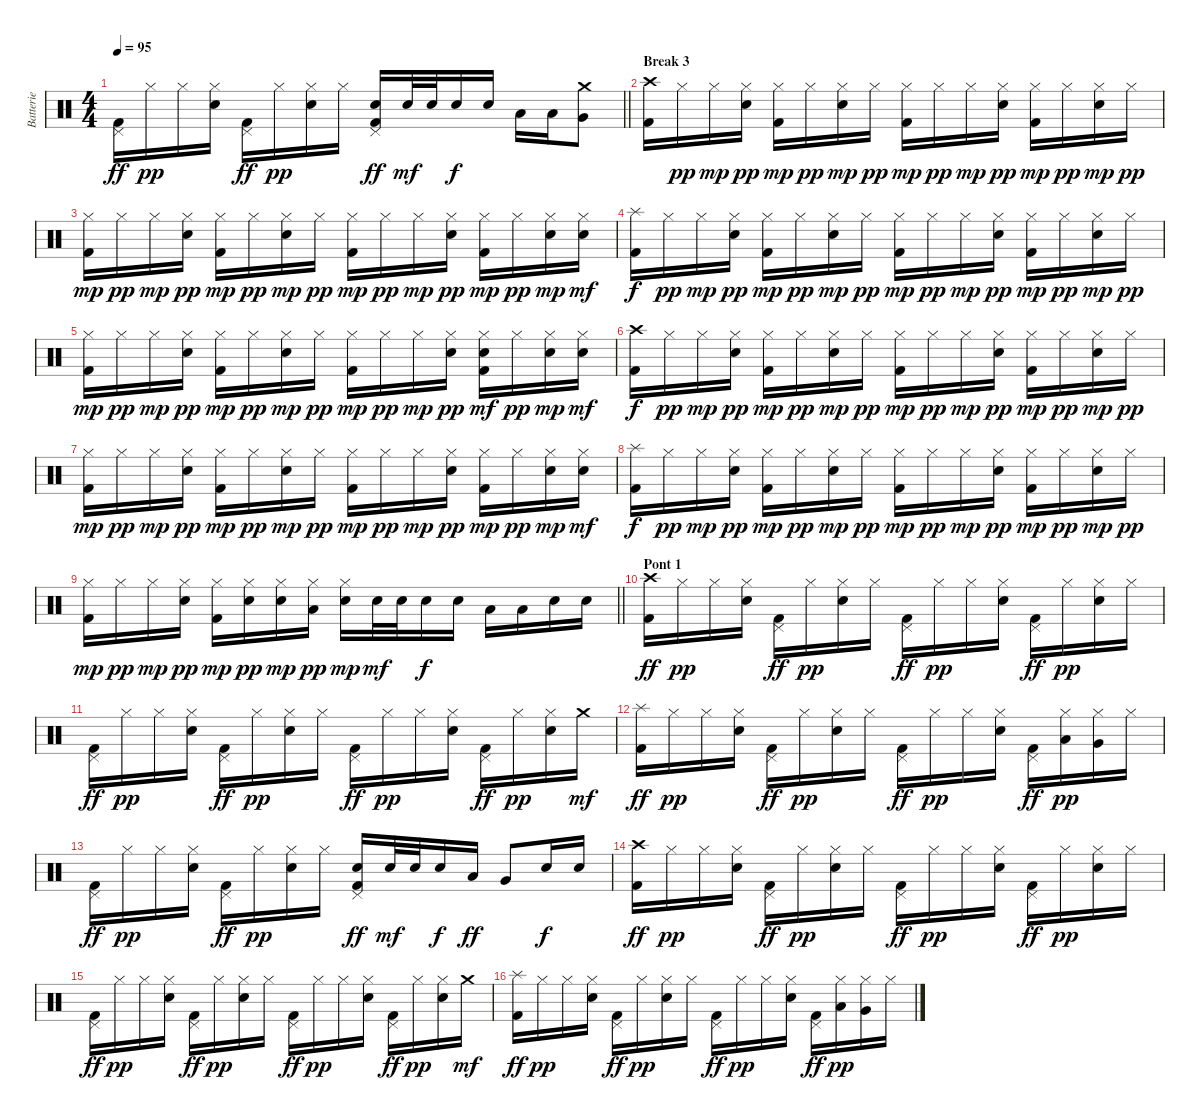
\track ("Batterie" "Batterie") {instrument percussion}
\staff {score}
\articulation defaults
\ts (4 4)
\tempo 95
\clef neutral
\barLineRight lightlight
\ks c
("Pedal Hi-Hat (hit)" "Kick (hit) 2").16{dy ff} "Hi-Hat (closed)".16{dy pp} "Hi-Hat (closed)".16 ("Hi-Hat (closed)" "Electric Snare (hit)").16 ("Pedal Hi-Hat (hit)" "Kick (hit) 2").16{dy ff} "Hi-Hat (closed)".16{dy pp} ("Hi-Hat (closed)" "Electric Snare (hit)").16 "Hi-Hat (closed)".16 ("Pedal Hi-Hat (hit)" "Electric Snare (hit)" "Kick (hit) 2").16{dy ff} "Electric Snare (hit)".32{dy mf} "Electric Snare (hit)".32 "Electric Snare (hit)".16{dy f} "Electric Snare (hit)".16 "Low Tom (hit)".16 "Low Tom (hit)".16 ("Crash medium (hit)" "Very Low Tom (hit)").8 |
\section ("" "Break 3")
("Crash high (hit)" "Kick (hit) 2").16 "Hi-Hat (closed)".16{dy pp} "Hi-Hat (closed)".16{dy mp} ("Hi-Hat (closed)" "Electric Snare (hit)").16{dy pp} ("Hi-Hat (closed)" "Kick (hit) 2").16{dy mp} "Hi-Hat (closed)".16{dy pp} ("Hi-Hat (closed)" "Electric Snare (hit)").16{dy mp} "Hi-Hat (closed)".16{dy pp} ("Hi-Hat (closed)" "Kick (hit) 2").16{dy mp} "Hi-Hat (closed)".16{dy pp} "Hi-Hat (closed)".16{dy mp} ("Hi-Hat (closed)" "Electric Snare (hit)").16{dy pp} ("Hi-Hat (closed)" "Kick (hit) 2").16{dy mp} "Hi-Hat (closed)".16{dy pp} ("Hi-Hat (closed)" "Electric Snare (hit)").16{dy mp} "Hi-Hat (closed)".16{dy pp} |
("Hi-Hat (closed)" "Kick (hit) 2").16{dy mp} "Hi-Hat (closed)".16{dy pp} "Hi-Hat (closed)".16{dy mp} ("Hi-Hat (closed)" "Electric Snare (hit)").16{dy pp} ("Hi-Hat (closed)" "Kick (hit) 2").16{dy mp} "Hi-Hat (closed)".16{dy pp} ("Hi-Hat (closed)" "Electric Snare (hit)").16{dy mp} "Hi-Hat (closed)".16{dy pp} ("Hi-Hat (closed)" "Kick (hit) 2").16{dy mp} "Hi-Hat (closed)".16{dy pp} "Hi-Hat (closed)".16{dy mp} ("Hi-Hat (closed)" "Electric Snare (hit)").16{dy pp} ("Hi-Hat (closed)" "Kick (hit) 2").16{dy mp} "Hi-Hat (closed)".16{dy pp} ("Hi-Hat (closed)" "Electric Snare (hit)").16{dy mp} ("Hi-Hat (closed)" "Electric Snare (hit)").16{dy mf} |
("Splash (hit)" "Kick (hit) 2").16{dy f} "Hi-Hat (closed)".16{dy pp} "Hi-Hat (closed)".16{dy mp} ("Hi-Hat (closed)" "Electric Snare (hit)").16{dy pp} ("Hi-Hat (closed)" "Kick (hit) 2").16{dy mp} "Hi-Hat (closed)".16{dy pp} ("Hi-Hat (closed)" "Electric Snare (hit)").16{dy mp} "Hi-Hat (closed)".16{dy pp} ("Hi-Hat (closed)" "Kick (hit) 2").16{dy mp} "Hi-Hat (closed)".16{dy pp} "Hi-Hat (closed)".16{dy mp} ("Hi-Hat (closed)" "Electric Snare (hit)").16{dy pp} ("Hi-Hat (closed)" "Kick (hit) 2").16{dy mp} "Hi-Hat (closed)".16{dy pp} ("Hi-Hat (closed)" "Electric Snare (hit)").16{dy mp} "Hi-Hat (closed)".16{dy pp} |
("Hi-Hat (closed)" "Kick (hit) 2").16{dy mp} "Hi-Hat (closed)".16{dy pp} "Hi-Hat (closed)".16{dy mp} ("Hi-Hat (closed)" "Electric Snare (hit)").16{dy pp} ("Hi-Hat (closed)" "Kick (hit) 2").16{dy mp} "Hi-Hat (closed)".16{dy pp} ("Hi-Hat (closed)" "Electric Snare (hit)").16{dy mp} "Hi-Hat (closed)".16{dy pp} ("Hi-Hat (closed)" "Kick (hit) 2").16{dy mp} "Hi-Hat (closed)".16{dy pp} "Hi-Hat (closed)".16{dy mp} ("Hi-Hat (closed)" "Electric Snare (hit)").16{dy pp} ("Hi-Hat (closed)" "Electric Snare (hit)" "Kick (hit) 2").16{dy mf} "Hi-Hat (closed)".16{dy pp} ("Hi-Hat (closed)" "Electric Snare (hit)").16{dy mp} ("Hi-Hat (closed)" "Electric Snare (hit)").16{dy mf} |
("Crash high (hit)" "Kick (hit) 2").16{dy f} "Hi-Hat (closed)".16{dy pp} "Hi-Hat (closed)".16{dy mp} ("Hi-Hat (closed)" "Electric Snare (hit)").16{dy pp} ("Hi-Hat (closed)" "Kick (hit) 2").16{dy mp} "Hi-Hat (closed)".16{dy pp} ("Hi-Hat (closed)" "Electric Snare (hit)").16{dy mp} "Hi-Hat (closed)".16{dy pp} ("Hi-Hat (closed)" "Kick (hit) 2").16{dy mp} "Hi-Hat (closed)".16{dy pp} "Hi-Hat (closed)".16{dy mp} ("Hi-Hat (closed)" "Electric Snare (hit)").16{dy pp} ("Hi-Hat (closed)" "Kick (hit) 2").16{dy mp} "Hi-Hat (closed)".16{dy pp} ("Hi-Hat (closed)" "Electric Snare (hit)").16{dy mp} "Hi-Hat (closed)".16{dy pp} |
("Hi-Hat (closed)" "Kick (hit) 2").16{dy mp} "Hi-Hat (closed)".16{dy pp} "Hi-Hat (closed)".16{dy mp} ("Hi-Hat (closed)" "Electric Snare (hit)").16{dy pp} ("Hi-Hat (closed)" "Kick (hit) 2").16{dy mp} "Hi-Hat (closed)".16{dy pp} ("Hi-Hat (closed)" "Electric Snare (hit)").16{dy mp} "Hi-Hat (closed)".16{dy pp} ("Hi-Hat (closed)" "Kick (hit) 2").16{dy mp} "Hi-Hat (closed)".16{dy pp} "Hi-Hat (closed)".16{dy mp} ("Hi-Hat (closed)" "Electric Snare (hit)").16{dy pp} ("Hi-Hat (closed)" "Kick (hit) 2").16{dy mp} "Hi-Hat (closed)".16{dy pp} ("Hi-Hat (closed)" "Electric Snare (hit)").16{dy mp} ("Hi-Hat (closed)" "Electric Snare (hit)").16{dy mf} |
("Splash (hit)" "Kick (hit) 2").16{dy f} "Hi-Hat (closed)".16{dy pp} "Hi-Hat (closed)".16{dy mp} ("Hi-Hat (closed)" "Electric Snare (hit)").16{dy pp} ("Hi-Hat (closed)" "Kick (hit) 2").16{dy mp} "Hi-Hat (closed)".16{dy pp} ("Hi-Hat (closed)" "Electric Snare (hit)").16{dy mp} "Hi-Hat (closed)".16{dy pp} ("Hi-Hat (closed)" "Kick (hit) 2").16{dy mp} "Hi-Hat (closed)".16{dy pp} "Hi-Hat (closed)".16{dy mp} ("Hi-Hat (closed)" "Electric Snare (hit)").16{dy pp} ("Hi-Hat (closed)" "Kick (hit) 2").16{dy mp} "Hi-Hat (closed)".16{dy pp} ("Hi-Hat (closed)" "Electric Snare (hit)").16{dy mp} "Hi-Hat (closed)".16{dy pp} |
\barLineRight lightlight
("Hi-Hat (closed)" "Kick (hit) 2").16{dy mp} "Hi-Hat (closed)".16{dy pp} "Hi-Hat (closed)".16{dy mp} ("Hi-Hat (closed)" "Electric Snare (hit)").16{dy pp} ("Hi-Hat (closed)" "Kick (hit) 2").16{dy mp} ("Hi-Hat (closed)" "Electric Snare (hit)").16{dy pp} ("Hi-Hat (closed)" "Electric Snare (hit)").16{dy mp} ("Hi-Hat (closed)" "Low Tom (hit)").16{dy pp} ("Hi-Hat (closed)" "Electric Snare (hit)").16{dy mp} "Electric Snare (hit)".32{dy mf} "Electric Snare (hit)".32 "Electric Snare (hit)".16{dy f} "Electric Snare (hit)".16 "Low Tom (hit)".16 "Low Tom (hit)".16 "Electric Snare (hit)".16 "Electric Snare (hit)".16 |
\section ("" "Pont 1")
("Crash high (hit)" "Kick (hit) 2").16{dy ff} "Hi-Hat (closed)".16{dy pp} "Hi-Hat (closed)".16 ("Hi-Hat (closed)" "Electric Snare (hit)").16 ("Pedal Hi-Hat (hit)" "Kick (hit) 2").16{dy ff} "Hi-Hat (closed)".16{dy pp} ("Hi-Hat (closed)" "Electric Snare (hit)").16 "Hi-Hat (closed)".16 ("Pedal Hi-Hat (hit)" "Kick (hit) 2").16{dy ff} "Hi-Hat (closed)".16{dy pp} "Hi-Hat (closed)".16 ("Hi-Hat (closed)" "Electric Snare (hit)").16 ("Pedal Hi-Hat (hit)" "Kick (hit) 2").16{dy ff} "Hi-Hat (closed)".16{dy pp} ("Hi-Hat (closed)" "Electric Snare (hit)").16 "Hi-Hat (closed)".16 |
("Pedal Hi-Hat (hit)" "Kick (hit) 2").16{dy ff} "Hi-Hat (closed)".16{dy pp} "Hi-Hat (closed)".16 ("Hi-Hat (closed)" "Electric Snare (hit)").16 ("Pedal Hi-Hat (hit)" "Kick (hit) 2").16{dy ff} "Hi-Hat (closed)".16{dy pp} ("Hi-Hat (closed)" "Electric Snare (hit)").16 "Hi-Hat (closed)".16 ("Pedal Hi-Hat (hit)" "Kick (hit) 2").16{dy ff} "Hi-Hat (closed)".16{dy pp} "Hi-Hat (closed)".16 ("Hi-Hat (closed)" "Electric Snare (hit)").16 ("Pedal Hi-Hat (hit)" "Kick (hit) 2").16{dy ff} "Hi-Hat (closed)".16{dy pp} ("Hi-Hat (closed)" "Electric Snare (hit)").16 "Crash medium (hit)".16{dy mf} |
("Splash (hit)" "Kick (hit) 2").16{dy ff} "Hi-Hat (closed)".16{dy pp} "Hi-Hat (closed)".16 ("Hi-Hat (closed)" "Electric Snare (hit)").16 ("Pedal Hi-Hat (hit)" "Kick (hit) 2").16{dy ff} "Hi-Hat (closed)".16{dy pp} ("Hi-Hat (closed)" "Electric Snare (hit)").16 "Hi-Hat (closed)".16 ("Pedal Hi-Hat (hit)" "Kick (hit) 2").16{dy ff} "Hi-Hat (closed)".16{dy pp} "Hi-Hat (closed)".16 ("Hi-Hat (closed)" "Electric Snare (hit)").16 ("Pedal Hi-Hat (hit)" "Kick (hit) 2").16{dy ff} ("Hi-Hat (closed)" "Low Tom (hit)").16{dy pp} ("Hi-Hat (closed)" "Very Low Tom (hit)").16 "Hi-Hat (closed)".16 |
("Pedal Hi-Hat (hit)" "Kick (hit) 2").16{dy ff} "Hi-Hat (closed)".16{dy pp} "Hi-Hat (closed)".16 ("Hi-Hat (closed)" "Electric Snare (hit)").16 ("Pedal Hi-Hat (hit)" "Kick (hit) 2").16{dy ff} "Hi-Hat (closed)".16{dy pp} ("Hi-Hat (closed)" "Electric Snare (hit)").16 "Hi-Hat (closed)".16 ("Pedal Hi-Hat (hit)" "Electric Snare (hit)" "Kick (hit) 2").16{dy ff} "Electric Snare (hit)".32{dy mf} "Electric Snare (hit)".32 "Electric Snare (hit)".16{dy f} "Low Tom (hit)".16{dy ff} "Very Low Tom (hit)".8 "Electric Snare (hit)".16{dy f} "Electric Snare (hit)".16 |
("Crash high (hit)" "Kick (hit) 2").16{dy ff} "Hi-Hat (closed)".16{dy pp} "Hi-Hat (closed)".16 ("Hi-Hat (closed)" "Electric Snare (hit)").16 ("Pedal Hi-Hat (hit)" "Kick (hit) 2").16{dy ff} "Hi-Hat (closed)".16{dy pp} ("Hi-Hat (closed)" "Electric Snare (hit)").16 "Hi-Hat (closed)".16 ("Pedal Hi-Hat (hit)" "Kick (hit) 2").16{dy ff} "Hi-Hat (closed)".16{dy pp} "Hi-Hat (closed)".16 ("Hi-Hat (closed)" "Electric Snare (hit)").16 ("Pedal Hi-Hat (hit)" "Kick (hit) 2").16{dy ff} "Hi-Hat (closed)".16{dy pp} ("Hi-Hat (closed)" "Electric Snare (hit)").16 "Hi-Hat (closed)".16 |
("Pedal Hi-Hat (hit)" "Kick (hit) 2").16{dy ff} "Hi-Hat (closed)".16{dy pp} "Hi-Hat (closed)".16 ("Hi-Hat (closed)" "Electric Snare (hit)").16 ("Pedal Hi-Hat (hit)" "Kick (hit) 2").16{dy ff} "Hi-Hat (closed)".16{dy pp} ("Hi-Hat (closed)" "Electric Snare (hit)").16 "Hi-Hat (closed)".16 ("Pedal Hi-Hat (hit)" "Kick (hit) 2").16{dy ff} "Hi-Hat (closed)".16{dy pp} "Hi-Hat (closed)".16 ("Hi-Hat (closed)" "Electric Snare (hit)").16 ("Pedal Hi-Hat (hit)" "Kick (hit) 2").16{dy ff} "Hi-Hat (closed)".16{dy pp} ("Hi-Hat (closed)" "Electric Snare (hit)").16 "Crash medium (hit)".16{dy mf} |
("Splash (hit)" "Kick (hit) 2").16{dy ff} "Hi-Hat (closed)".16{dy pp} "Hi-Hat (closed)".16 ("Hi-Hat (closed)" "Electric Snare (hit)").16 ("Pedal Hi-Hat (hit)" "Kick (hit) 2").16{dy ff} "Hi-Hat (closed)".16{dy pp} ("Hi-Hat (closed)" "Electric Snare (hit)").16 "Hi-Hat (closed)".16 ("Pedal Hi-Hat (hit)" "Kick (hit) 2").16{dy ff} "Hi-Hat (closed)".16{dy pp} "Hi-Hat (closed)".16 ("Hi-Hat (closed)" "Electric Snare (hit)").16 ("Pedal Hi-Hat (hit)" "Kick (hit) 2").16{dy ff} ("Hi-Hat (closed)" "Low Tom (hit)").16{dy pp} ("Hi-Hat (closed)" "Very Low Tom (hit)").16 "Hi-Hat (closed)".16
